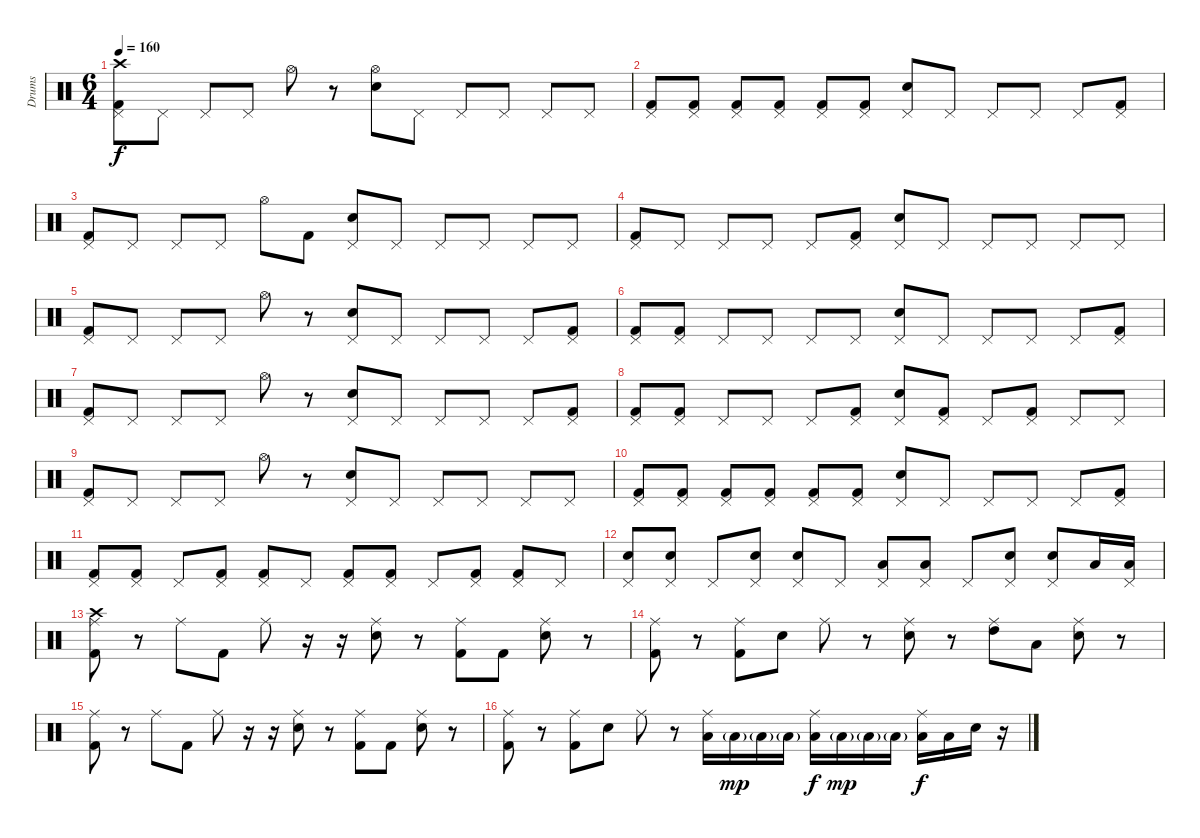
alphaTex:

\track ("Drums" "Drums") {instrument percussion}
\staff {score}
\articulation defaults
\ts (6 4)
\tempo 160
\clef neutral
\ks c
("Crash high (hit)" "Pedal Hi-Hat (hit)" "Kick (hit) 2").8{dy f} "Pedal Hi-Hat (hit)".8 "Pedal Hi-Hat (hit)".8 "Pedal Hi-Hat (hit)".8 "Hi-Hat (open)".8 r.8 ("Hi-Hat (open)" "Electric Snare (hit)").8 "Pedal Hi-Hat (hit)".8 "Pedal Hi-Hat (hit)".8 "Pedal Hi-Hat (hit)".8 "Pedal Hi-Hat (hit)".8 "Pedal Hi-Hat (hit)".8 |
("Pedal Hi-Hat (hit)" "Kick (hit) 2").8 ("Pedal Hi-Hat (hit)" "Kick (hit) 2").8 ("Pedal Hi-Hat (hit)" "Kick (hit) 2").8 ("Pedal Hi-Hat (hit)" "Kick (hit) 2").8 ("Pedal Hi-Hat (hit)" "Kick (hit) 2").8 ("Pedal Hi-Hat (hit)" "Kick (hit) 2").8 ("Pedal Hi-Hat (hit)" "Electric Snare (hit)").8 "Pedal Hi-Hat (hit)".8 "Pedal Hi-Hat (hit)".8 "Pedal Hi-Hat (hit)".8 "Pedal Hi-Hat (hit)".8 ("Pedal Hi-Hat (hit)" "Kick (hit) 2").8 |
("Pedal Hi-Hat (hit)" "Kick (hit) 2").8 "Pedal Hi-Hat (hit)".8 "Pedal Hi-Hat (hit)".8 "Pedal Hi-Hat (hit)".8 "Hi-Hat (open)".8 "Kick (hit) 2".8 ("Pedal Hi-Hat (hit)" "Electric Snare (hit)").8 "Pedal Hi-Hat (hit)".8 "Pedal Hi-Hat (hit)".8 "Pedal Hi-Hat (hit)".8 "Pedal Hi-Hat (hit)".8 "Pedal Hi-Hat (hit)".8 |
("Pedal Hi-Hat (hit)" "Kick (hit) 2").8 "Pedal Hi-Hat (hit)".8 "Pedal Hi-Hat (hit)".8 "Pedal Hi-Hat (hit)".8 "Pedal Hi-Hat (hit)".8 ("Pedal Hi-Hat (hit)" "Kick (hit) 2").8 ("Pedal Hi-Hat (hit)" "Electric Snare (hit)").8 "Pedal Hi-Hat (hit)".8 "Pedal Hi-Hat (hit)".8 "Pedal Hi-Hat (hit)".8 "Pedal Hi-Hat (hit)".8 "Pedal Hi-Hat (hit)".8 |
("Pedal Hi-Hat (hit)" "Kick (hit) 2").8 "Pedal Hi-Hat (hit)".8 "Pedal Hi-Hat (hit)".8 "Pedal Hi-Hat (hit)".8 "Hi-Hat (open)".8 r.8 ("Pedal Hi-Hat (hit)" "Electric Snare (hit)").8 "Pedal Hi-Hat (hit)".8 "Pedal Hi-Hat (hit)".8 "Pedal Hi-Hat (hit)".8 "Pedal Hi-Hat (hit)".8 ("Pedal Hi-Hat (hit)" "Kick (hit) 2").8 |
("Pedal Hi-Hat (hit)" "Kick (hit) 2").8 ("Pedal Hi-Hat (hit)" "Kick (hit) 2").8 "Pedal Hi-Hat (hit)".8 "Pedal Hi-Hat (hit)".8 "Pedal Hi-Hat (hit)".8 "Pedal Hi-Hat (hit)".8 ("Pedal Hi-Hat (hit)" "Electric Snare (hit)").8 "Pedal Hi-Hat (hit)".8 "Pedal Hi-Hat (hit)".8 "Pedal Hi-Hat (hit)".8 "Pedal Hi-Hat (hit)".8 ("Pedal Hi-Hat (hit)" "Kick (hit) 2").8 |
("Pedal Hi-Hat (hit)" "Kick (hit) 2").8 "Pedal Hi-Hat (hit)".8 "Pedal Hi-Hat (hit)".8 "Pedal Hi-Hat (hit)".8 "Hi-Hat (open)".8 r.8 ("Pedal Hi-Hat (hit)" "Electric Snare (hit)").8 "Pedal Hi-Hat (hit)".8 "Pedal Hi-Hat (hit)".8 "Pedal Hi-Hat (hit)".8 "Pedal Hi-Hat (hit)".8 ("Pedal Hi-Hat (hit)" "Kick (hit) 2").8 |
("Pedal Hi-Hat (hit)" "Kick (hit) 2").8 ("Pedal Hi-Hat (hit)" "Kick (hit) 2").8 "Pedal Hi-Hat (hit)".8 "Pedal Hi-Hat (hit)".8 "Pedal Hi-Hat (hit)".8 ("Pedal Hi-Hat (hit)" "Kick (hit) 2").8 ("Pedal Hi-Hat (hit)" "Electric Snare (hit)").8 ("Pedal Hi-Hat (hit)" "Kick (hit) 2").8 "Pedal Hi-Hat (hit)".8 ("Pedal Hi-Hat (hit)" "Kick (hit) 2").8 "Pedal Hi-Hat (hit)".8 "Pedal Hi-Hat (hit)".8 |
("Pedal Hi-Hat (hit)" "Kick (hit) 2").8 "Pedal Hi-Hat (hit)".8 "Pedal Hi-Hat (hit)".8 "Pedal Hi-Hat (hit)".8 "Hi-Hat (open)".8 r.8 ("Pedal Hi-Hat (hit)" "Electric Snare (hit)").8 "Pedal Hi-Hat (hit)".8 "Pedal Hi-Hat (hit)".8 "Pedal Hi-Hat (hit)".8 "Pedal Hi-Hat (hit)".8 "Pedal Hi-Hat (hit)".8 |
("Pedal Hi-Hat (hit)" "Kick (hit) 2").8 ("Pedal Hi-Hat (hit)" "Kick (hit) 2").8 ("Pedal Hi-Hat (hit)" "Kick (hit) 2").8 ("Pedal Hi-Hat (hit)" "Kick (hit) 2").8 ("Pedal Hi-Hat (hit)" "Kick (hit) 2").8 ("Pedal Hi-Hat (hit)" "Kick (hit) 2").8 ("Pedal Hi-Hat (hit)" "Electric Snare (hit)").8 "Pedal Hi-Hat (hit)".8 "Pedal Hi-Hat (hit)".8 "Pedal Hi-Hat (hit)".8 "Pedal Hi-Hat (hit)".8 ("Pedal Hi-Hat (hit)" "Kick (hit) 2").8 |
("Pedal Hi-Hat (hit)" "Kick (hit) 2").8 ("Pedal Hi-Hat (hit)" "Kick (hit) 2").8 "Pedal Hi-Hat (hit)".8 ("Pedal Hi-Hat (hit)" "Kick (hit) 2").8 ("Pedal Hi-Hat (hit)" "Kick (hit) 2").8 "Pedal Hi-Hat (hit)".8 ("Pedal Hi-Hat (hit)" "Kick (hit) 2").8 ("Pedal Hi-Hat (hit)" "Kick (hit) 2").8 "Pedal Hi-Hat (hit)".8 ("Pedal Hi-Hat (hit)" "Kick (hit) 2").8 ("Pedal Hi-Hat (hit)" "Kick (hit) 2").8 "Pedal Hi-Hat (hit)".8 |
("Pedal Hi-Hat (hit)" "Electric Snare (hit)").8 ("Pedal Hi-Hat (hit)" "Electric Snare (hit)").8 "Pedal Hi-Hat (hit)".8 ("Pedal Hi-Hat (hit)" "Electric Snare (hit)").8 ("Pedal Hi-Hat (hit)" "Electric Snare (hit)").8 "Pedal Hi-Hat (hit)".8 ("Pedal Hi-Hat (hit)" "Low Tom (hit)").8 ("Pedal Hi-Hat (hit)" "Low Tom (hit)").8 "Pedal Hi-Hat (hit)".8 ("Pedal Hi-Hat (hit)" "Electric Snare (hit)").8 ("Pedal Hi-Hat (hit)" "Electric Snare (hit)").8 "Low Floor Tom (hit)".16 ("Pedal Hi-Hat (hit)" "Low Floor Tom (hit)").16 |
("Crash high (hit)" "Ride (middle)" "Kick (hit) 2").8 r.8 "Ride (middle)".8 "Kick (hit) 2".8 "Ride (middle)".8 r.16 r.16 ("Ride (middle)" "Electric Snare (hit)").8 r.8 ("Ride (middle)" "Kick (hit) 2").8 "Kick (hit) 2".8 ("Ride (middle)" "Electric Snare (hit)").8 r.8 |
("Ride (middle)" "Kick (hit) 2").8 r.8 ("Ride (middle)" "Kick (hit) 2").8 "Electric Snare (hit)".8 "Ride (middle)".8 r.8 ("Ride (middle)" "Electric Snare (hit)").8 r.8 ("Ride (middle)" "High Tom (hit)").8 "Low Tom (hit)".8 ("Ride (middle)" "Electric Snare (hit)").8 r.8 |
("Ride (middle)" "Kick (hit) 2").8 r.8 "Ride (middle)".8 "Kick (hit) 2".8 "Ride (middle)".8 r.16 r.16 ("Ride (middle)" "Electric Snare (hit)").8 r.8 ("Ride (middle)" "Kick (hit) 2").8 "Kick (hit) 2".8 ("Ride (middle)" "Electric Snare (hit)").8 r.8 |
("Ride (middle)" "Kick (hit) 2").8 r.8 ("Ride (middle)" "Kick (hit) 2").8 "Electric Snare (hit)".8 "Ride (middle)".8 r.8 ("Ride (middle)" "Low Tom (hit)").16 "Low Tom (hit)"{g}.16{dy mp} "Low Tom (hit)"{g}.16 "Low Tom (hit)"{g}.16 ("Ride (middle)" "Low Tom (hit)").16{dy f} "Low Tom (hit)"{g}.16{dy mp} "Low Tom (hit)"{g}.16 "Low Tom (hit)"{g}.16 ("Ride (middle)" "Low Tom (hit)").16{dy f} "Low Tom (hit)".16 "Electric Snare (hit)".16 r.16
